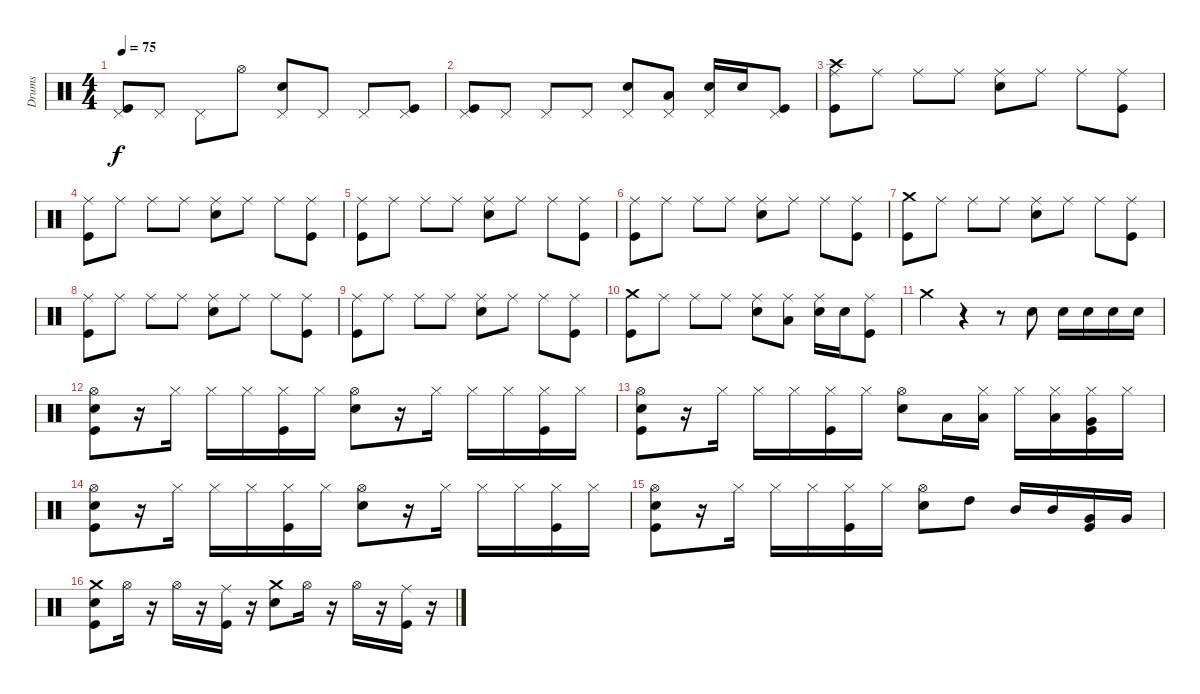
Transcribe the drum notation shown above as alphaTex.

\track ("Drums" "Drums") {instrument percussion}
\staff {score}
\articulation defaults
\ts (4 4)
\tempo 75
\clef neutral
\ks c
("Pedal Hi-Hat (hit)" "Kick (hit)").8{dy f} "Pedal Hi-Hat (hit)".8 "Pedal Hi-Hat (hit)".8 "Hi-Hat (open)".8 ("Snare (hit) 2" "Pedal Hi-Hat (hit)").8 "Pedal Hi-Hat (hit)".8 "Pedal Hi-Hat (hit)".8 ("Kick (hit)" "Pedal Hi-Hat (hit)").8 |
("Pedal Hi-Hat (hit)" "Kick (hit)").8 "Pedal Hi-Hat (hit)".8 "Pedal Hi-Hat (hit)".8 "Pedal Hi-Hat (hit)".8 ("Snare (hit) 2" "Pedal Hi-Hat (hit)").8 ("Low Floor Tom (hit)" "Pedal Hi-Hat (hit)").8 ("Snare (hit) 2" "Pedal Hi-Hat (hit)").16 "Snare (hit) 2".16 ("Kick (hit)" "Pedal Hi-Hat (hit)").8 |
("Crash high (hit)" "Kick (hit)" "Ride (middle)").8 "Ride (middle)".8 "Ride (middle)".8 "Ride (middle)".8 ("Snare (hit) 2" "Ride (middle)").8 "Ride (middle)".8 "Ride (middle)".8 ("Kick (hit)" "Ride (middle)").8 |
("Ride (middle)" "Kick (hit)").8 "Ride (middle)".8 "Ride (middle)".8 "Ride (middle)".8 ("Snare (hit) 2" "Ride (middle)").8 "Ride (middle)".8 "Ride (middle)".8 ("Kick (hit)" "Ride (middle)").8 |
("Ride (middle)" "Kick (hit)").8 "Ride (middle)".8 "Ride (middle)".8 "Ride (middle)".8 ("Snare (hit) 2" "Ride (middle)").8 "Ride (middle)".8 "Ride (middle)".8 ("Kick (hit)" "Ride (middle)").8 |
("Ride (middle)" "Kick (hit)").8 "Ride (middle)".8 "Ride (middle)".8 "Ride (middle)".8 ("Snare (hit) 2" "Ride (middle)").8 "Ride (middle)".8 "Ride (middle)".8 ("Kick (hit)" "Ride (middle)").8 |
("Crash medium (hit)" "Kick (hit)").8 "Ride (middle)".8 "Ride (middle)".8 "Ride (middle)".8 ("Snare (hit) 2" "Ride (middle)").8 "Ride (middle)".8 "Ride (middle)".8 ("Kick (hit)" "Ride (middle)").8 |
("Ride (middle)" "Kick (hit)").8 "Ride (middle)".8 "Ride (middle)".8 "Ride (middle)".8 ("Snare (hit) 2" "Ride (middle)").8 "Ride (middle)".8 "Ride (middle)".8 ("Kick (hit)" "Ride (middle)").8 |
("Ride (middle)" "Kick (hit)").8 "Ride (middle)".8 "Ride (middle)".8 "Ride (middle)".8 ("Snare (hit) 2" "Ride (middle)").8 "Ride (middle)".8 "Ride (middle)".8 ("Kick (hit)" "Ride (middle)").8 |
("Crash medium (hit)" "Kick (hit)").8 "Ride (middle)".8 "Ride (middle)".8 "Ride (middle)".8 ("Snare (hit) 2" "Ride (middle)").8 ("Low Floor Tom (hit)" "Ride (middle)").8 ("Snare (hit) 2" "Ride (middle)").16 "Snare (hit) 2".16 ("Kick (hit)" "Ride (middle)").8 |
"Crash medium (hit)".4 r.4 r.8 "Snare (hit) 2".8 "Snare (hit) 2".16 "Snare (hit) 2".16 "Snare (hit) 2".16 "Snare (hit) 2".16 |
("Hi-Hat (open)" "Kick (hit)" "Snare (hit) 2").8 r.16 "Hi-Hat (closed)".16 "Hi-Hat (closed)".16 "Hi-Hat (closed)".16 ("Kick (hit)" "Hi-Hat (closed)").16 "Hi-Hat (closed)".16 ("Snare (hit) 2" "Hi-Hat (open)").8 r.16 "Hi-Hat (closed)".16 "Hi-Hat (closed)".16 "Hi-Hat (closed)".16 ("Kick (hit)" "Hi-Hat (closed)").16 "Hi-Hat (closed)".16 |
("Hi-Hat (open)" "Kick (hit)" "Snare (hit) 2").8 r.16 "Hi-Hat (closed)".16 "Hi-Hat (closed)".16 "Hi-Hat (closed)".16 ("Kick (hit)" "Hi-Hat (closed)").16 "Hi-Hat (closed)".16 ("Snare (hit) 2" "Hi-Hat (open)").8 "Low Tom (hit)".16 ("Low Tom (hit)" "Hi-Hat (closed)").16 "Hi-Hat (closed)".16 ("Low Tom (hit)" "Hi-Hat (closed)").16 ("Very Low Tom (hit)" "Kick (hit)" "Hi-Hat (closed)").16 "Hi-Hat (closed)".16 |
("Hi-Hat (open)" "Kick (hit)" "Snare (hit) 2").8 r.16 "Hi-Hat (closed)".16 "Hi-Hat (closed)".16 "Hi-Hat (closed)".16 ("Kick (hit)" "Hi-Hat (closed)").16 "Hi-Hat (closed)".16 ("Snare (hit) 2" "Hi-Hat (open)").8 r.16 "Hi-Hat (closed)".16 "Hi-Hat (closed)".16 "Hi-Hat (closed)".16 ("Kick (hit)" "Hi-Hat (closed)").16 "Hi-Hat (closed)".16 |
("Hi-Hat (open)" "Kick (hit)" "Snare (hit) 2").8 r.16 "Hi-Hat (closed)".16 "Hi-Hat (closed)".16 "Hi-Hat (closed)".16 ("Kick (hit)" "Hi-Hat (closed)").16 "Hi-Hat (closed)".16 ("Snare (hit) 2" "Hi-Hat (open)").8 "High Tom (hit)".8 "Mid Tom (hit)".16 "Mid Tom (hit)".16 ("Very Low Tom (hit)" "Kick (hit)").16 "Very Low Tom (hit)".16 |
("Crash medium (hit)" "Kick (hit)" "Snare (hit) 2").8 "Hi-Hat (open)".16 r.16 "Hi-Hat (open)".16 r.16 ("Kick (hit)" "Ride (middle)").16 r.16 ("Snare (hit) 2" "Crash medium (hit)").8 "Hi-Hat (open)".16 r.16 "Hi-Hat (open)".16 r.16 ("Kick (hit)" "Ride (middle)").16 r.16
